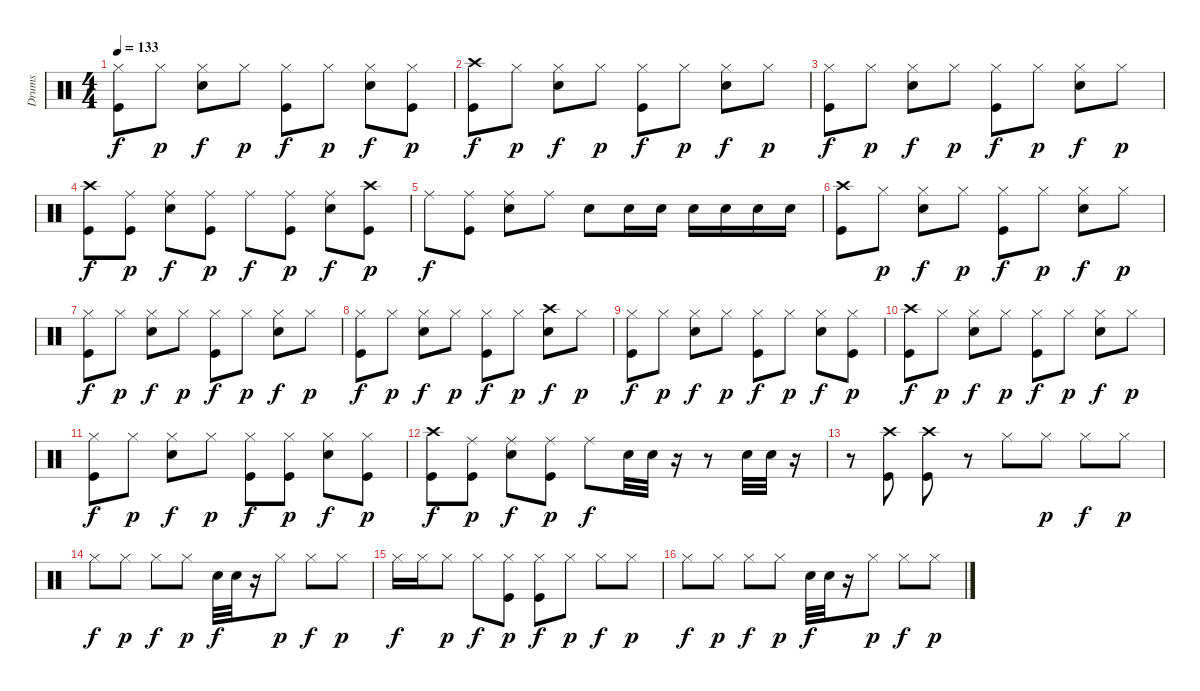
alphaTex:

\track ("Drums" "Drums") {instrument percussion}
\staff {score}
\articulation defaults
\ts (4 4)
\tempo 133
\clef neutral
\ks c
("Hi-Hat (closed)" "Kick (hit)").8{dy f} "Hi-Hat (closed)".8{dy p} ("Hi-Hat (closed)" "Snare (hit) 2").8{dy f} "Hi-Hat (closed)".8{dy p} ("Hi-Hat (closed)" "Kick (hit)").8{dy f} "Hi-Hat (closed)".8{dy p} ("Hi-Hat (closed)" "Snare (hit) 2").8{dy f} ("Hi-Hat (closed)" "Kick (hit)").8{dy p} |
("Crash high (hit)" "Kick (hit)").8{dy f} "Hi-Hat (closed)".8{dy p} ("Hi-Hat (closed)" "Snare (hit) 2").8{dy f} "Hi-Hat (closed)".8{dy p} ("Hi-Hat (closed)" "Kick (hit)").8{dy f} "Hi-Hat (closed)".8{dy p} ("Hi-Hat (closed)" "Snare (hit) 2").8{dy f} "Hi-Hat (closed)".8{dy p} |
("Hi-Hat (closed)" "Kick (hit)").8{dy f} "Hi-Hat (closed)".8{dy p} ("Hi-Hat (closed)" "Snare (hit) 2").8{dy f} "Hi-Hat (closed)".8{dy p} ("Hi-Hat (closed)" "Kick (hit)").8{dy f} "Hi-Hat (closed)".8{dy p} ("Hi-Hat (closed)" "Snare (hit) 2").8{dy f} "Hi-Hat (closed)".8{dy p} |
("Crash high (hit)" "Kick (hit)").8{dy f} ("Ride (middle)" "Kick (hit)").8{dy p} ("Ride (middle)" "Snare (hit) 2").8{dy f} ("Ride (middle)" "Kick (hit)").8{dy p} "Ride (middle)".8{dy f} ("Ride (middle)" "Kick (hit)").8{dy p} ("Ride (middle)" "Snare (hit) 2").8{dy f} ("Crash high (hit)" "Kick (hit)").8{dy p} |
"Ride (middle)".8{dy f} ("Ride (middle)" "Kick (hit)").8 ("Ride (middle)" "Snare (hit) 2").8 "Ride (middle)".8 "Snare (hit) 2".8 "Snare (hit) 2".16 "Snare (hit) 2".16 "Snare (hit) 2".16 "Snare (hit) 2".16 "Snare (hit) 2".16 "Snare (hit) 2".16 |
("Crash high (hit)" "Kick (hit)").8 "Hi-Hat (closed)".8{dy p} ("Hi-Hat (closed)" "Snare (hit) 2").8{dy f} "Hi-Hat (closed)".8{dy p} ("Hi-Hat (closed)" "Kick (hit)").8{dy f} "Hi-Hat (closed)".8{dy p} ("Hi-Hat (closed)" "Snare (hit) 2").8{dy f} "Hi-Hat (closed)".8{dy p} |
("Hi-Hat (closed)" "Kick (hit)").8{dy f} "Hi-Hat (closed)".8{dy p} ("Hi-Hat (closed)" "Snare (hit) 2").8{dy f} "Hi-Hat (closed)".8{dy p} ("Hi-Hat (closed)" "Kick (hit)").8{dy f} "Hi-Hat (closed)".8{dy p} ("Hi-Hat (closed)" "Snare (hit) 2").8{dy f} "Hi-Hat (closed)".8{dy p} |
("Hi-Hat (closed)" "Kick (hit)").8{dy f} "Hi-Hat (closed)".8{dy p} ("Hi-Hat (closed)" "Snare (hit) 2").8{dy f} "Hi-Hat (closed)".8{dy p} ("Hi-Hat (closed)" "Kick (hit)").8{dy f} "Hi-Hat (closed)".8{dy p} ("Crash high (hit)" "Snare (hit) 2").8{dy f} "Hi-Hat (closed)".8{dy p} |
("Hi-Hat (closed)" "Kick (hit)").8{dy f} "Hi-Hat (closed)".8{dy p} ("Hi-Hat (closed)" "Snare (hit) 2").8{dy f} "Hi-Hat (closed)".8{dy p} ("Hi-Hat (closed)" "Kick (hit)").8{dy f} "Hi-Hat (closed)".8{dy p} ("Hi-Hat (closed)" "Snare (hit) 2").8{dy f} ("Hi-Hat (closed)" "Kick (hit)").8{dy p} |
("Crash high (hit)" "Kick (hit)").8{dy f} "Hi-Hat (closed)".8{dy p} ("Hi-Hat (closed)" "Snare (hit) 2").8{dy f} "Hi-Hat (closed)".8{dy p} ("Hi-Hat (closed)" "Kick (hit)").8{dy f} "Hi-Hat (closed)".8{dy p} ("Hi-Hat (closed)" "Snare (hit) 2").8{dy f} "Hi-Hat (closed)".8{dy p} |
("Hi-Hat (closed)" "Kick (hit)").8{dy f} "Hi-Hat (closed)".8{dy p} ("Hi-Hat (closed)" "Snare (hit) 2").8{dy f} "Hi-Hat (closed)".8{dy p} ("Hi-Hat (closed)" "Kick (hit)").8{dy f} ("Hi-Hat (closed)" "Kick (hit)").8{dy p} ("Hi-Hat (closed)" "Snare (hit) 2").8{dy f} ("Hi-Hat (closed)" "Kick (hit)").8{dy p} |
("Crash high (hit)" "Kick (hit)").8{dy f} ("Ride (middle)" "Kick (hit)").8{dy p} ("Ride (middle)" "Snare (hit) 2").8{dy f} ("Ride (middle)" "Kick (hit)").8{dy p} "Ride (middle)".8{dy f} "Snare (hit) 2".32 "Snare (hit) 2".32 r.16 r.8 "Snare (hit) 2".32 "Snare (hit) 2".32 r.16 |
r.8 ("Crash high (hit)" "Kick (hit)").8 ("Crash high (hit)" "Kick (hit)").8 r.8 "Hi-Hat (closed)".8 "Hi-Hat (closed)".8{dy p} "Hi-Hat (closed)".8{dy f} "Hi-Hat (closed)".8{dy p} |
"Hi-Hat (closed)".8{dy f} "Hi-Hat (closed)".8{dy p} "Hi-Hat (closed)".8{dy f} "Hi-Hat (closed)".8{dy p} "Snare (hit) 2".32{dy f} "Snare (hit) 2".32 r.16 "Hi-Hat (closed)".8{dy p} "Hi-Hat (closed)".8{dy f} "Hi-Hat (closed)".8{dy p} |
"Hi-Hat (closed)".16{dy f} "Hi-Hat (closed)".16 "Hi-Hat (closed)".8{dy p} "Hi-Hat (closed)".8{dy f} ("Hi-Hat (closed)" "Kick (hit)").8{dy p} ("Hi-Hat (closed)" "Kick (hit)").8{dy f} "Hi-Hat (closed)".8{dy p} "Hi-Hat (closed)".8{dy f} "Hi-Hat (closed)".8{dy p} |
"Hi-Hat (closed)".8{dy f} "Hi-Hat (closed)".8{dy p} "Hi-Hat (closed)".8{dy f} "Hi-Hat (closed)".8{dy p} "Snare (hit) 2".32{dy f} "Snare (hit) 2".32 r.16 "Hi-Hat (closed)".8{dy p} "Hi-Hat (closed)".8{dy f} "Hi-Hat (closed)".8{dy p}
